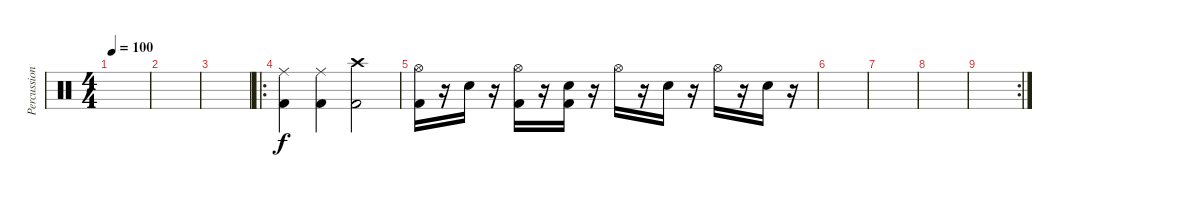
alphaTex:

\track ("Percussion" "Percussion") {instrument percussion}
\staff {score}
\articulation defaults
\ts (4 4)
\tempo 100
\clef neutral
\ks c
|
|
|
\ro
("Ride (middle)" "Kick (hit) 2").4 ("Ride (middle)" "Kick (hit) 2").4 ("Crash high (hit)" "Kick (hit) 2").2 |
("Hi-Hat (open)" "Kick (hit) 2").16 r.16 "Electric Snare (hit)".16 r.16 ("Hi-Hat (open)" "Kick (hit) 2").16 r.16 ("Electric Snare (hit)" "Kick (hit) 2").16 r.16 "Hi-Hat (open)".16 r.16 "Electric Snare (hit)".16 r.16 "Hi-Hat (open)".16 r.16 "Electric Snare (hit)".16 r.16 |
|
|
|
\rc 2
